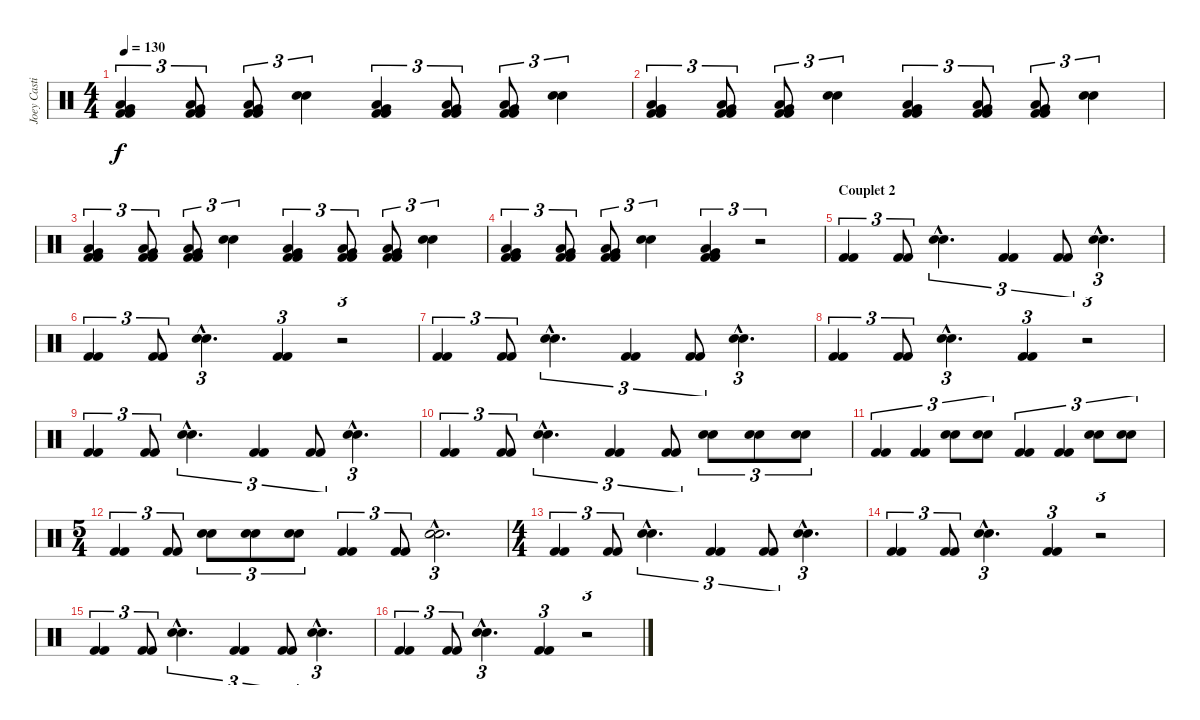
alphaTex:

\track ("Joey Castillo" "Joey Casti") {instrument percussion}
\staff {score}
\articulation defaults
\ts (4 4)
\tempo 130
\clef neutral
\ks c
("Low Floor Tom (hit)" "Very Low Tom (hit)" "Kick (hit) 2" "Kick (hit) 2").4{tu (3 2) dy f} ("Low Floor Tom (hit)" "Very Low Tom (hit)" "Kick (hit) 2" "Kick (hit) 2").8{tu (3 2)} ("Low Floor Tom (hit)" "Very Low Tom (hit)" "Kick (hit) 2" "Kick (hit) 2").8{tu (3 2)} ("Electric Snare (hit)" "Electric Snare (hit)").4{tu (3 2)} ("Low Floor Tom (hit)" "Very Low Tom (hit)" "Kick (hit) 2" "Kick (hit) 2").4{tu (3 2)} ("Low Floor Tom (hit)" "Very Low Tom (hit)" "Kick (hit) 2" "Kick (hit) 2").8{tu (3 2)} ("Low Floor Tom (hit)" "Very Low Tom (hit)" "Kick (hit) 2" "Kick (hit) 2").8{tu (3 2)} ("Electric Snare (hit)" "Electric Snare (hit)").4{tu (3 2)} |
("Low Floor Tom (hit)" "Very Low Tom (hit)" "Kick (hit) 2" "Kick (hit) 2").4{tu (3 2)} ("Low Floor Tom (hit)" "Very Low Tom (hit)" "Kick (hit) 2" "Kick (hit) 2").8{tu (3 2)} ("Low Floor Tom (hit)" "Very Low Tom (hit)" "Kick (hit) 2" "Kick (hit) 2").8{tu (3 2)} ("Electric Snare (hit)" "Electric Snare (hit)").4{tu (3 2)} ("Low Floor Tom (hit)" "Very Low Tom (hit)" "Kick (hit) 2" "Kick (hit) 2").4{tu (3 2)} ("Low Floor Tom (hit)" "Very Low Tom (hit)" "Kick (hit) 2" "Kick (hit) 2").8{tu (3 2)} ("Low Floor Tom (hit)" "Very Low Tom (hit)" "Kick (hit) 2" "Kick (hit) 2").8{tu (3 2)} ("Electric Snare (hit)" "Electric Snare (hit)").4{tu (3 2)} |
("Low Floor Tom (hit)" "Very Low Tom (hit)" "Kick (hit) 2" "Kick (hit) 2").4{tu (3 2)} ("Low Floor Tom (hit)" "Very Low Tom (hit)" "Kick (hit) 2" "Kick (hit) 2").8{tu (3 2)} ("Low Floor Tom (hit)" "Very Low Tom (hit)" "Kick (hit) 2" "Kick (hit) 2").8{tu (3 2)} ("Electric Snare (hit)" "Electric Snare (hit)").4{tu (3 2)} ("Low Floor Tom (hit)" "Very Low Tom (hit)" "Kick (hit) 2" "Kick (hit) 2").4{tu (3 2)} ("Low Floor Tom (hit)" "Very Low Tom (hit)" "Kick (hit) 2" "Kick (hit) 2").8{tu (3 2)} ("Low Floor Tom (hit)" "Very Low Tom (hit)" "Kick (hit) 2" "Kick (hit) 2").8{tu (3 2)} ("Electric Snare (hit)" "Electric Snare (hit)").4{tu (3 2)} |
("Low Floor Tom (hit)" "Very Low Tom (hit)" "Kick (hit) 2" "Kick (hit) 2").4{tu (3 2)} ("Low Floor Tom (hit)" "Very Low Tom (hit)" "Kick (hit) 2" "Kick (hit) 2").8{tu (3 2)} ("Low Floor Tom (hit)" "Very Low Tom (hit)" "Kick (hit) 2" "Kick (hit) 2").8{tu (3 2)} ("Electric Snare (hit)" "Electric Snare (hit)").4{tu (3 2)} ("Low Floor Tom (hit)" "Very Low Tom (hit)" "Kick (hit) 2" "Kick (hit) 2").4{tu (3 2)} r.2{tu (3 2)} |
\section ("" "Couplet 2")
("Kick (hit) 2" "Kick (hit) 2").4{tu (3 2)} ("Kick (hit) 2" "Kick (hit) 2").8{tu (3 2)} ("Electric Snare (hit)"{hac} "Electric Snare (hit)"{hac}).4{d tu (3 2)} ("Kick (hit) 2" "Kick (hit) 2").4{tu (3 2)} ("Kick (hit) 2" "Kick (hit) 2").8{tu (3 2)} ("Electric Snare (hit)"{hac} "Electric Snare (hit)"{hac}).4{d tu (3 2)} |
("Kick (hit) 2" "Kick (hit) 2").4{tu (3 2)} ("Kick (hit) 2" "Kick (hit) 2").8{tu (3 2)} ("Electric Snare (hit)"{hac} "Electric Snare (hit)"{hac}).4{d tu (3 2)} ("Kick (hit) 2" "Kick (hit) 2").4{tu (3 2)} r.2{tu (3 2)} |
("Kick (hit) 2" "Kick (hit) 2").4{tu (3 2)} ("Kick (hit) 2" "Kick (hit) 2").8{tu (3 2)} ("Electric Snare (hit)"{hac} "Electric Snare (hit)"{hac}).4{d tu (3 2)} ("Kick (hit) 2" "Kick (hit) 2").4{tu (3 2)} ("Kick (hit) 2" "Kick (hit) 2").8{tu (3 2)} ("Electric Snare (hit)"{hac} "Electric Snare (hit)"{hac}).4{d tu (3 2)} |
("Kick (hit) 2" "Kick (hit) 2").4{tu (3 2)} ("Kick (hit) 2" "Kick (hit) 2").8{tu (3 2)} ("Electric Snare (hit)"{hac} "Electric Snare (hit)"{hac}).4{d tu (3 2)} ("Kick (hit) 2" "Kick (hit) 2").4{tu (3 2)} r.2{tu (3 2)} |
("Kick (hit) 2" "Kick (hit) 2").4{tu (3 2)} ("Kick (hit) 2" "Kick (hit) 2").8{tu (3 2)} ("Electric Snare (hit)"{hac} "Electric Snare (hit)"{hac}).4{d tu (3 2)} ("Kick (hit) 2" "Kick (hit) 2").4{tu (3 2)} ("Kick (hit) 2" "Kick (hit) 2").8{tu (3 2)} ("Electric Snare (hit)"{hac} "Electric Snare (hit)"{hac}).4{d tu (3 2)} |
("Kick (hit) 2" "Kick (hit) 2").4{tu (3 2)} ("Kick (hit) 2" "Kick (hit) 2").8{tu (3 2)} ("Electric Snare (hit)"{hac} "Electric Snare (hit)"{hac}).4{d tu (3 2)} ("Kick (hit) 2" "Kick (hit) 2").4{tu (3 2)} ("Kick (hit) 2" "Kick (hit) 2").8{tu (3 2)} ("Electric Snare (hit)" "Electric Snare (hit)").8{tu (3 2)} ("Electric Snare (hit)" "Electric Snare (hit)").8{tu (3 2)} ("Electric Snare (hit)" "Electric Snare (hit)").8{tu (3 2)} |
("Kick (hit) 2" "Kick (hit) 2").4{tu (3 2)} ("Kick (hit) 2" "Kick (hit) 2").4{tu (3 2)} ("Electric Snare (hit)" "Electric Snare (hit)").8{tu (3 2)} ("Electric Snare (hit)" "Electric Snare (hit)").8{tu (3 2)} ("Kick (hit) 2" "Kick (hit) 2").4{tu (3 2)} ("Kick (hit) 2" "Kick (hit) 2").4{tu (3 2)} ("Electric Snare (hit)" "Electric Snare (hit)").8{tu (3 2)} ("Electric Snare (hit)" "Electric Snare (hit)").8{tu (3 2)} |
\ts (5 4)
("Kick (hit) 2" "Kick (hit) 2").4{tu (3 2)} ("Kick (hit) 2" "Kick (hit) 2").8{tu (3 2)} ("Electric Snare (hit)" "Electric Snare (hit)").8{tu (3 2)} ("Electric Snare (hit)" "Electric Snare (hit)").8{tu (3 2)} ("Electric Snare (hit)" "Electric Snare (hit)").8{tu (3 2)} ("Kick (hit) 2" "Kick (hit) 2").4{tu (3 2)} ("Kick (hit) 2" "Kick (hit) 2").8{tu (3 2)} ("Electric Snare (hit)"{hac} "Electric Snare (hit)"{hac}).2{d tu (3 2)} |
\ts (4 4)
("Kick (hit) 2" "Kick (hit) 2").4{tu (3 2)} ("Kick (hit) 2" "Kick (hit) 2").8{tu (3 2)} ("Electric Snare (hit)"{hac} "Electric Snare (hit)"{hac}).4{d tu (3 2)} ("Kick (hit) 2" "Kick (hit) 2").4{tu (3 2)} ("Kick (hit) 2" "Kick (hit) 2").8{tu (3 2)} ("Electric Snare (hit)"{hac} "Electric Snare (hit)"{hac}).4{d tu (3 2)} |
("Kick (hit) 2" "Kick (hit) 2").4{tu (3 2)} ("Kick (hit) 2" "Kick (hit) 2").8{tu (3 2)} ("Electric Snare (hit)"{hac} "Electric Snare (hit)"{hac}).4{d tu (3 2)} ("Kick (hit) 2" "Kick (hit) 2").4{tu (3 2)} r.2{tu (3 2)} |
("Kick (hit) 2" "Kick (hit) 2").4{tu (3 2)} ("Kick (hit) 2" "Kick (hit) 2").8{tu (3 2)} ("Electric Snare (hit)"{hac} "Electric Snare (hit)"{hac}).4{d tu (3 2)} ("Kick (hit) 2" "Kick (hit) 2").4{tu (3 2)} ("Kick (hit) 2" "Kick (hit) 2").8{tu (3 2)} ("Electric Snare (hit)"{hac} "Electric Snare (hit)"{hac}).4{d tu (3 2)} |
("Kick (hit) 2" "Kick (hit) 2").4{tu (3 2)} ("Kick (hit) 2" "Kick (hit) 2").8{tu (3 2)} ("Electric Snare (hit)"{hac} "Electric Snare (hit)"{hac}).4{d tu (3 2)} ("Kick (hit) 2" "Kick (hit) 2").4{tu (3 2)} r.2{tu (3 2)}
